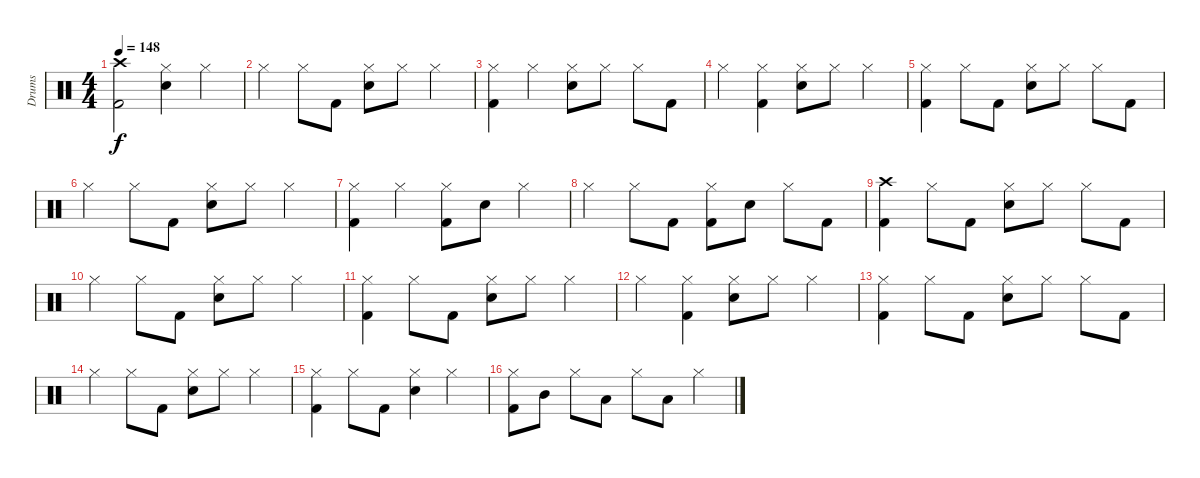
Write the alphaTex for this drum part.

\track ("Drums" "Drums") {instrument percussion}
\staff {score}
\articulation defaults
\ts (4 4)
\tempo 148
\clef neutral
\ks c
("Crash high (hit)" "Kick (hit) 2").2{dy f} ("Hi-Hat (closed)" "Electric Snare (hit)").4 "Hi-Hat (closed)".4 |
"Hi-Hat (closed)".4 "Hi-Hat (closed)".8 "Kick (hit) 2".8 ("Hi-Hat (closed)" "Electric Snare (hit)").8 "Hi-Hat (closed)".8 "Hi-Hat (closed)".4 |
("Hi-Hat (closed)" "Kick (hit) 2").4 "Hi-Hat (closed)".4 ("Hi-Hat (closed)" "Electric Snare (hit)").8 "Hi-Hat (closed)".8 "Hi-Hat (closed)".8 "Kick (hit) 2".8 |
"Hi-Hat (closed)".4 ("Hi-Hat (closed)" "Kick (hit) 2").4 ("Hi-Hat (closed)" "Electric Snare (hit)").8 "Hi-Hat (closed)".8 "Hi-Hat (closed)".4 |
("Hi-Hat (closed)" "Kick (hit) 2").4 "Hi-Hat (closed)".8 "Kick (hit) 2".8 ("Hi-Hat (closed)" "Electric Snare (hit)").8 "Hi-Hat (closed)".8 "Hi-Hat (closed)".8 "Kick (hit) 2".8 |
"Hi-Hat (closed)".4 "Hi-Hat (closed)".8 "Kick (hit) 2".8 ("Hi-Hat (closed)" "Electric Snare (hit)").8 "Hi-Hat (closed)".8 "Hi-Hat (closed)".4 |
("Hi-Hat (closed)" "Kick (hit) 2").4 "Hi-Hat (closed)".4 ("Hi-Hat (closed)" "Kick (hit) 2").8 "Electric Snare (hit)".8 "Hi-Hat (closed)".4 |
"Hi-Hat (closed)".4 "Hi-Hat (closed)".8 "Kick (hit) 2".8 ("Hi-Hat (closed)" "Kick (hit) 2").8 "Electric Snare (hit)".8 "Hi-Hat (closed)".8 "Kick (hit) 2".8 |
("Crash high (hit)" "Kick (hit) 2").4 "Hi-Hat (closed)".8 "Kick (hit) 2".8 ("Hi-Hat (closed)" "Electric Snare (hit)").8 "Hi-Hat (closed)".8 "Hi-Hat (closed)".8 "Kick (hit) 2".8 |
"Hi-Hat (closed)".4 "Hi-Hat (closed)".8 "Kick (hit) 2".8 ("Hi-Hat (closed)" "Electric Snare (hit)").8 "Hi-Hat (closed)".8 "Hi-Hat (closed)".4 |
("Hi-Hat (closed)" "Kick (hit) 2").4 "Hi-Hat (closed)".8 "Kick (hit) 2".8 ("Hi-Hat (closed)" "Electric Snare (hit)").8 "Hi-Hat (closed)".8 "Hi-Hat (closed)".4 |
"Hi-Hat (closed)".4 ("Hi-Hat (closed)" "Kick (hit) 2").4 ("Hi-Hat (closed)" "Electric Snare (hit)").8 "Hi-Hat (closed)".8 "Hi-Hat (closed)".4 |
("Hi-Hat (closed)" "Kick (hit) 2").4 "Hi-Hat (closed)".8 "Kick (hit) 2".8 ("Hi-Hat (closed)" "Electric Snare (hit)").8 "Hi-Hat (closed)".8 "Hi-Hat (closed)".8 "Kick (hit) 2".8 |
"Hi-Hat (closed)".4 "Hi-Hat (closed)".8 "Kick (hit) 2".8 ("Hi-Hat (closed)" "Electric Snare (hit)").8 "Hi-Hat (closed)".8 "Hi-Hat (closed)".4 |
("Hi-Hat (closed)" "Kick (hit) 2").4 "Hi-Hat (closed)".8 "Kick (hit) 2".8 ("Hi-Hat (closed)" "Electric Snare (hit)").4 "Hi-Hat (closed)".4 |
("Hi-Hat (closed)" "Kick (hit) 2").8 "Mid Tom (hit)".8 "Hi-Hat (closed)".8 "Low Tom (hit)".8 "Hi-Hat (closed)".8 "Low Floor Tom (hit)".8 "Hi-Hat (closed)".4
